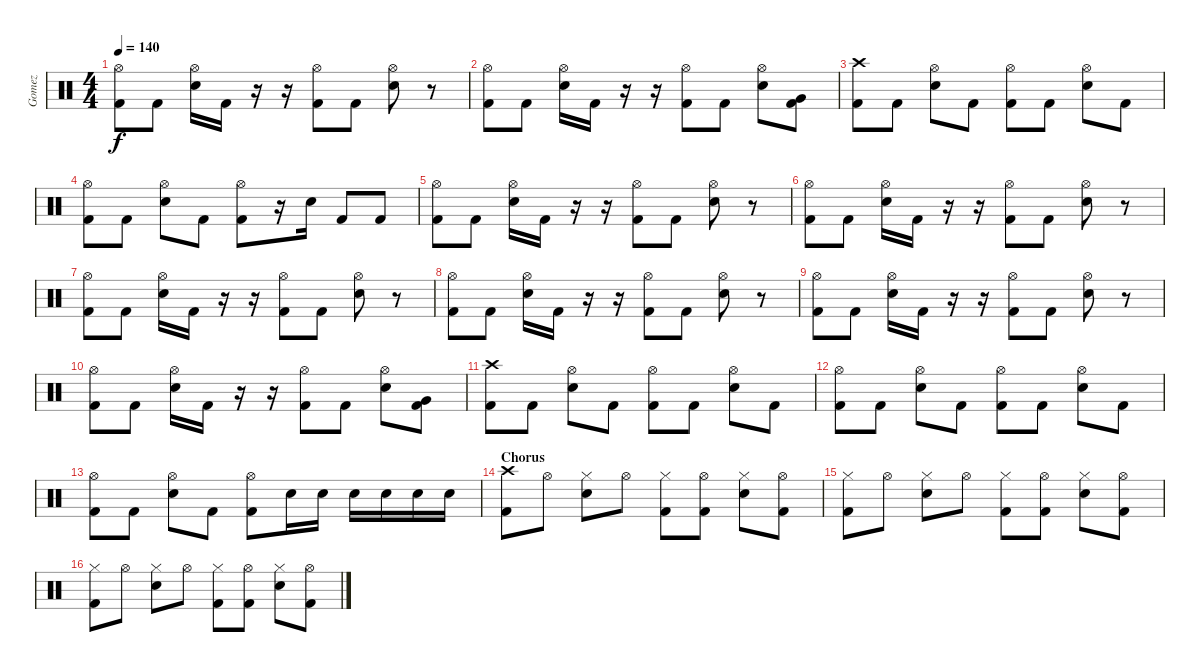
\track ("Gomez" "Gomez") {instrument percussion}
\staff {score}
\articulation defaults
\ts (4 4)
\tempo 140
\clef neutral
\ks c
("Hi-Hat (open)" "Kick (hit) 2").8{dy f} "Kick (hit) 2".8 ("Hi-Hat (open)" "Electric Snare (hit)").16 "Kick (hit) 2".16 r.16 r.16 ("Hi-Hat (open)" "Kick (hit) 2").8 "Kick (hit) 2".8 ("Hi-Hat (open)" "Electric Snare (hit)").8 r.8 |
("Hi-Hat (open)" "Kick (hit) 2").8 "Kick (hit) 2".8 ("Hi-Hat (open)" "Electric Snare (hit)").16 "Kick (hit) 2".16 r.16 r.16 ("Hi-Hat (open)" "Kick (hit) 2").8 "Kick (hit) 2".8 ("Hi-Hat (open)" "Electric Snare (hit)").8 ("Very Low Tom (hit)" "Kick (hit) 2").8 |
("Crash high (hit)" "Kick (hit) 2").8 "Kick (hit) 2".8 ("Hi-Hat (open)" "Electric Snare (hit)").8 "Kick (hit) 2".8 ("Hi-Hat (open)" "Kick (hit) 2").8 "Kick (hit) 2".8 ("Hi-Hat (open)" "Electric Snare (hit)").8 "Kick (hit) 2".8 |
("Hi-Hat (open)" "Kick (hit) 2").8 "Kick (hit) 2".8 ("Hi-Hat (open)" "Electric Snare (hit)").8 "Kick (hit) 2".8 ("Hi-Hat (open)" "Kick (hit) 2").8 r.16 "Electric Snare (hit)".16 "Kick (hit) 2".8 "Kick (hit) 2".8 |
("Hi-Hat (open)" "Kick (hit) 2").8 "Kick (hit) 2".8 ("Hi-Hat (open)" "Electric Snare (hit)").16 "Kick (hit) 2".16 r.16 r.16 ("Hi-Hat (open)" "Kick (hit) 2").8 "Kick (hit) 2".8 ("Hi-Hat (open)" "Electric Snare (hit)").8 r.8 |
("Hi-Hat (open)" "Kick (hit) 2").8 "Kick (hit) 2".8 ("Hi-Hat (open)" "Electric Snare (hit)").16 "Kick (hit) 2".16 r.16 r.16 ("Hi-Hat (open)" "Kick (hit) 2").8 "Kick (hit) 2".8 ("Hi-Hat (open)" "Electric Snare (hit)").8 r.8 |
("Hi-Hat (open)" "Kick (hit) 2").8 "Kick (hit) 2".8 ("Hi-Hat (open)" "Electric Snare (hit)").16 "Kick (hit) 2".16 r.16 r.16 ("Hi-Hat (open)" "Kick (hit) 2").8 "Kick (hit) 2".8 ("Hi-Hat (open)" "Electric Snare (hit)").8 r.8 |
("Hi-Hat (open)" "Kick (hit) 2").8 "Kick (hit) 2".8 ("Hi-Hat (open)" "Electric Snare (hit)").16 "Kick (hit) 2".16 r.16 r.16 ("Hi-Hat (open)" "Kick (hit) 2").8 "Kick (hit) 2".8 ("Hi-Hat (open)" "Electric Snare (hit)").8 r.8 |
("Hi-Hat (open)" "Kick (hit) 2").8 "Kick (hit) 2".8 ("Hi-Hat (open)" "Electric Snare (hit)").16 "Kick (hit) 2".16 r.16 r.16 ("Hi-Hat (open)" "Kick (hit) 2").8 "Kick (hit) 2".8 ("Hi-Hat (open)" "Electric Snare (hit)").8 r.8 |
("Hi-Hat (open)" "Kick (hit) 2").8 "Kick (hit) 2".8 ("Hi-Hat (open)" "Electric Snare (hit)").16 "Kick (hit) 2".16 r.16 r.16 ("Hi-Hat (open)" "Kick (hit) 2").8 "Kick (hit) 2".8 ("Hi-Hat (open)" "Electric Snare (hit)").8 ("Very Low Tom (hit)" "Kick (hit) 2").8 |
("Crash high (hit)" "Kick (hit) 2").8 "Kick (hit) 2".8 ("Hi-Hat (open)" "Electric Snare (hit)").8 "Kick (hit) 2".8 ("Hi-Hat (open)" "Kick (hit) 2").8 "Kick (hit) 2".8 ("Hi-Hat (open)" "Electric Snare (hit)").8 "Kick (hit) 2".8 |
("Hi-Hat (open)" "Kick (hit) 2").8 "Kick (hit) 2".8 ("Hi-Hat (open)" "Electric Snare (hit)").8 "Kick (hit) 2".8 ("Hi-Hat (open)" "Kick (hit) 2").8 "Kick (hit) 2".8 ("Hi-Hat (open)" "Electric Snare (hit)").8 "Kick (hit) 2".8 |
("Hi-Hat (open)" "Kick (hit) 2").8 "Kick (hit) 2".8 ("Hi-Hat (open)" "Electric Snare (hit)").8 "Kick (hit) 2".8 ("Hi-Hat (open)" "Kick (hit) 2").8 "Electric Snare (hit)".16{volume 16} "Electric Snare (hit)".16 "Electric Snare (hit)".16 "Electric Snare (hit)".16 "Electric Snare (hit)".16 "Electric Snare (hit)".16 |
\section ("" "Chorus")
("Crash high (hit)" "Kick (hit) 2").8{volume 13} "Hi-Hat (open)".8 ("Hi-Hat (closed)" "Electric Snare (hit)").8 "Hi-Hat (open)".8 ("Hi-Hat (closed)" "Kick (hit) 2").8 ("Hi-Hat (open)" "Kick (hit) 2").8 ("Hi-Hat (closed)" "Electric Snare (hit)").8 ("Hi-Hat (open)" "Kick (hit) 2").8 |
("Hi-Hat (closed)" "Kick (hit) 2").8 "Hi-Hat (open)".8 ("Hi-Hat (closed)" "Electric Snare (hit)").8 "Hi-Hat (open)".8 ("Hi-Hat (closed)" "Kick (hit) 2").8 ("Hi-Hat (open)" "Kick (hit) 2").8 ("Hi-Hat (closed)" "Electric Snare (hit)").8 ("Hi-Hat (open)" "Kick (hit) 2").8 |
("Hi-Hat (closed)" "Kick (hit) 2").8 "Hi-Hat (open)".8 ("Hi-Hat (closed)" "Electric Snare (hit)").8 "Hi-Hat (open)".8 ("Hi-Hat (closed)" "Kick (hit) 2").8 ("Hi-Hat (open)" "Kick (hit) 2").8 ("Hi-Hat (closed)" "Electric Snare (hit)").8 ("Hi-Hat (open)" "Kick (hit) 2").8
